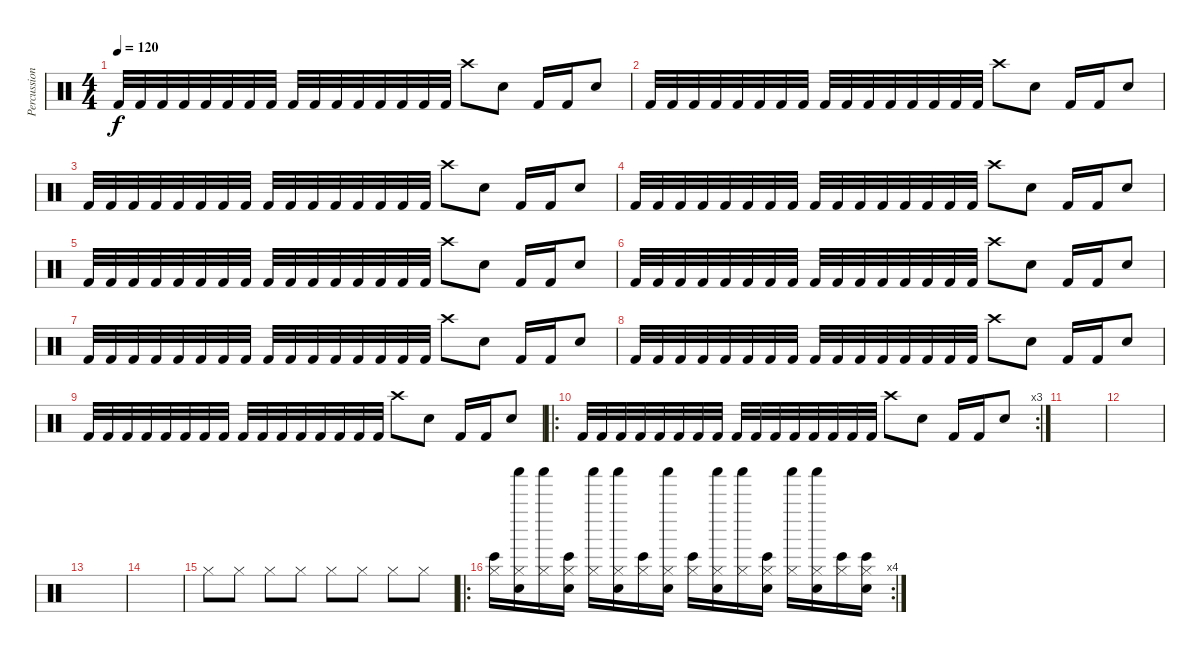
\track ("Percussion" "Percussion") {instrument percussion}
\staff {score}
\articulation defaults
\ts (4 4)
\tempo 120
\clef neutral
\ks c "Kick (hit) 2".32{dy f} "Kick (hit) 2".32 "Kick (hit) 2".32 "Kick (hit) 2".32 "Kick (hit) 2".32 "Kick (hit) 2".32 "Kick (hit) 2".32 "Kick (hit) 2".32 "Kick (hit) 2".32 "Kick (hit) 2".32 "Kick (hit) 2".32 "Kick (hit) 2".32 "Kick (hit) 2".32 "Kick (hit) 2".32 "Kick (hit) 2".32 "Kick (hit) 2".32 "Crash high (hit)".8 "Electric Snare (hit)".8 "Kick (hit) 2".16 "Kick (hit) 2".16 "Electric Snare (hit)".8
|
"Kick (hit) 2".32 "Kick (hit) 2".32 "Kick (hit) 2".32 "Kick (hit) 2".32 "Kick (hit) 2".32 "Kick (hit) 2".32 "Kick (hit) 2".32 "Kick (hit) 2".32 "Kick (hit) 2".32 "Kick (hit) 2".32 "Kick (hit) 2".32 "Kick (hit) 2".32 "Kick (hit) 2".32 "Kick (hit) 2".32 "Kick (hit) 2".32 "Kick (hit) 2".32 "Crash high (hit)".8 "Electric Snare (hit)".8 "Kick (hit) 2".16 "Kick (hit) 2".16 "Electric Snare (hit)".8 |
"Kick (hit) 2".32 "Kick (hit) 2".32 "Kick (hit) 2".32 "Kick (hit) 2".32 "Kick (hit) 2".32 "Kick (hit) 2".32 "Kick (hit) 2".32 "Kick (hit) 2".32 "Kick (hit) 2".32 "Kick (hit) 2".32 "Kick (hit) 2".32 "Kick (hit) 2".32 "Kick (hit) 2".32 "Kick (hit) 2".32 "Kick (hit) 2".32 "Kick (hit) 2".32 "Crash high (hit)".8 "Electric Snare (hit)".8 "Kick (hit) 2".16 "Kick (hit) 2".16 "Electric Snare (hit)".8 |
"Kick (hit) 2".32 "Kick (hit) 2".32 "Kick (hit) 2".32 "Kick (hit) 2".32 "Kick (hit) 2".32 "Kick (hit) 2".32 "Kick (hit) 2".32 "Kick (hit) 2".32 "Kick (hit) 2".32 "Kick (hit) 2".32 "Kick (hit) 2".32 "Kick (hit) 2".32 "Kick (hit) 2".32 "Kick (hit) 2".32 "Kick (hit) 2".32 "Kick (hit) 2".32 "Crash high (hit)".8 "Electric Snare (hit)".8 "Kick (hit) 2".16 "Kick (hit) 2".16 "Electric Snare (hit)".8 |
"Kick (hit) 2".32 "Kick (hit) 2".32 "Kick (hit) 2".32 "Kick (hit) 2".32 "Kick (hit) 2".32 "Kick (hit) 2".32 "Kick (hit) 2".32 "Kick (hit) 2".32 "Kick (hit) 2".32 "Kick (hit) 2".32 "Kick (hit) 2".32 "Kick (hit) 2".32 "Kick (hit) 2".32 "Kick (hit) 2".32 "Kick (hit) 2".32 "Kick (hit) 2".32 "Crash high (hit)".8 "Electric Snare (hit)".8 "Kick (hit) 2".16 "Kick (hit) 2".16 "Electric Snare (hit)".8 |
"Kick (hit) 2".32 "Kick (hit) 2".32 "Kick (hit) 2".32 "Kick (hit) 2".32 "Kick (hit) 2".32 "Kick (hit) 2".32 "Kick (hit) 2".32 "Kick (hit) 2".32 "Kick (hit) 2".32 "Kick (hit) 2".32 "Kick (hit) 2".32 "Kick (hit) 2".32 "Kick (hit) 2".32 "Kick (hit) 2".32 "Kick (hit) 2".32 "Kick (hit) 2".32 "Crash high (hit)".8 "Electric Snare (hit)".8 "Kick (hit) 2".16 "Kick (hit) 2".16 "Electric Snare (hit)".8 |
"Kick (hit) 2".32 "Kick (hit) 2".32 "Kick (hit) 2".32 "Kick (hit) 2".32 "Kick (hit) 2".32 "Kick (hit) 2".32 "Kick (hit) 2".32 "Kick (hit) 2".32 "Kick (hit) 2".32 "Kick (hit) 2".32 "Kick (hit) 2".32 "Kick (hit) 2".32 "Kick (hit) 2".32 "Kick (hit) 2".32 "Kick (hit) 2".32 "Kick (hit) 2".32 "Crash high (hit)".8 "Electric Snare (hit)".8 "Kick (hit) 2".16 "Kick (hit) 2".16 "Electric Snare (hit)".8 |
"Kick (hit) 2".32 "Kick (hit) 2".32 "Kick (hit) 2".32 "Kick (hit) 2".32 "Kick (hit) 2".32 "Kick (hit) 2".32 "Kick (hit) 2".32 "Kick (hit) 2".32 "Kick (hit) 2".32 "Kick (hit) 2".32 "Kick (hit) 2".32 "Kick (hit) 2".32 "Kick (hit) 2".32 "Kick (hit) 2".32 "Kick (hit) 2".32 "Kick (hit) 2".32 "Crash high (hit)".8 "Electric Snare (hit)".8 "Kick (hit) 2".16 "Kick (hit) 2".16 "Electric Snare (hit)".8 |
"Kick (hit) 2".32 "Kick (hit) 2".32 "Kick (hit) 2".32 "Kick (hit) 2".32 "Kick (hit) 2".32 "Kick (hit) 2".32 "Kick (hit) 2".32 "Kick (hit) 2".32 "Kick (hit) 2".32 "Kick (hit) 2".32 "Kick (hit) 2".32 "Kick (hit) 2".32 "Kick (hit) 2".32 "Kick (hit) 2".32 "Kick (hit) 2".32 "Kick (hit) 2".32 "Crash high (hit)".8 "Electric Snare (hit)".8 "Kick (hit) 2".16 "Kick (hit) 2".16 "Electric Snare (hit)".8 |
\ro
\rc 3 "Kick (hit) 2".32 "Kick (hit) 2".32 "Kick (hit) 2".32 "Kick (hit) 2".32 "Kick (hit) 2".32 "Kick (hit) 2".32 "Kick (hit) 2".32 "Kick (hit) 2".32 "Kick (hit) 2".32 "Kick (hit) 2".32 "Kick (hit) 2".32 "Kick (hit) 2".32 "Kick (hit) 2".32 "Kick (hit) 2".32 "Kick (hit) 2".32 "Kick (hit) 2".32 "Crash high (hit)".8 "Electric Snare (hit)".8 "Kick (hit) 2".16 "Kick (hit) 2".16 "Electric Snare (hit)".8
|
|
|
|
|
"Hi-Hat (closed)".8 "Hi-Hat (closed)".8 "Hi-Hat (closed)".8 "Hi-Hat (closed)".8 "Hi-Hat (closed)".8 "Hi-Hat (closed)".8 "Hi-Hat (closed)".8 "Hi-Hat (closed)".8 |
\ro
\rc 4
("Bongo High (hit)" "Hi-Hat (closed)").16{balance 0} ("Hand Clap (hit)" "Shaker (hit)" "Hi-Hat (closed)").16{balance 1} ("Shaker (hit)" "Hi-Hat (closed)").16{balance 2} ("Hand Clap (hit)" "Bongo High (hit)" "Hi-Hat (closed)").16{balance 3} ("Shaker (hit)" "Hi-Hat (closed)").16{balance 4} ("Hand Clap (hit)" "Shaker (hit)" "Hi-Hat (closed)").16{balance 5} ("Bongo High (hit)" "Hi-Hat (closed)").16{balance 6} ("Hand Clap (hit)" "Shaker (hit)" "Hi-Hat (closed)").16{balance 7} ("Bongo High (hit)" "Hi-Hat (closed)").16{balance 8} ("Hand Clap (hit)" "Shaker (hit)" "Hi-Hat (closed)").16{balance 9} ("Shaker (hit)" "Hi-Hat (closed)").16{balance 10} ("Hand Clap (hit)" "Bongo High (hit)" "Hi-Hat (closed)").16{balance 11} ("Shaker (hit)" "Hi-Hat (closed)").16{balance 12} ("Hand Clap (hit)" "Shaker (hit)" "Hi-Hat (closed)").16{balance 13} ("Bongo High (hit)" "Hi-Hat (closed)").16{balance 14} ("Hand Clap (hit)" "Bongo High (hit)" "Hi-Hat (closed)").16{balance 16}
